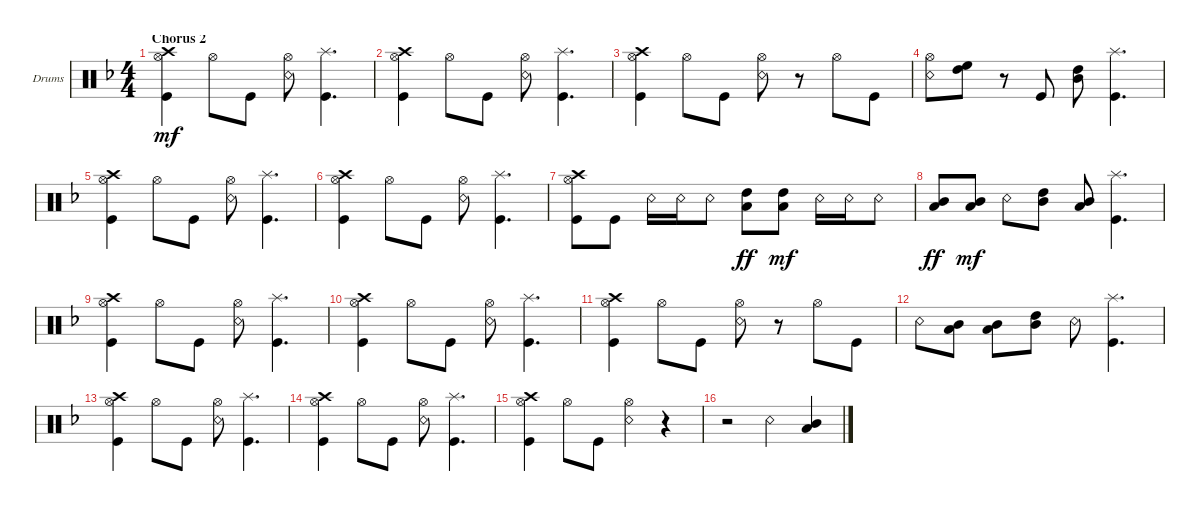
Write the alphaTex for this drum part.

\bracketExtendMode groupsimilarinstruments
\firstSystemTrackNameOrientation horizontal
\otherSystemsTrackNameOrientation horizontal
\track ("Drumkit" "Drums") {instrument percussion}
\staff {score}
\articulation defaults
\ts (4 4)
\section ("" "Chorus 2")
\tempo (125 hide)
\clef neutral
\scale
0.333333
\ks dminor
("Hi-Hat (open)" "Kick (hit)" "Crash high (hit)").4{dy mf} "Hi-Hat (open)".8 "Kick (hit)".8 ("Hi-Hat (open)" "Snare (rim shot)").8 ("Kick (hit)" "Splash (hit)").4{d} |
\scale
0.333333 ("Hi-Hat (open)" "Kick (hit)" "Crash high (hit)").4 "Hi-Hat (open)".8 "Kick (hit)".8 ("Hi-Hat (open)" "Snare (rim shot)").8 ("Kick (hit)" "Splash (hit)").4{d} |
\scale
0.333333 ("Hi-Hat (open)" "Kick (hit)" "Crash high (hit)").4 "Hi-Hat (open)".8 "Kick (hit)".8 ("Hi-Hat (open)" "Snare (rim shot)").8 r.8 "Hi-Hat (open)".8 "Kick (hit)".8 |
\scale
0.333333 ("Hi-Hat (open)" "Snare (rim shot)").8 ("High Floor Tom (hit)" "High Tom (hit)").8 r.8 "Kick (hit)".8 ("High Tom (hit)" "Mid Tom (hit)").8 ("Kick (hit)" "Splash (hit)").4{d} |
\scale
0.333333 ("Hi-Hat (open)" "Kick (hit)" "Crash high (hit)").4 "Hi-Hat (open)".8 "Kick (hit)".8 ("Hi-Hat (open)" "Snare (rim shot)").8 ("Kick (hit)" "Splash (hit)").4{d} |
\scale
0.333333 ("Hi-Hat (open)" "Kick (hit)" "Crash high (hit)").4 "Hi-Hat (open)".8 "Kick (hit)".8 ("Hi-Hat (open)" "Snare (rim shot)").8 ("Kick (hit)" "Splash (hit)").4{d} |
\scale
0.333333 ("Hi-Hat (open)" "Kick (hit)" "Crash high (hit)").8 "Kick (hit)".8 "Snare (rim shot)".16 "Snare (rim shot)".16 "Snare (rim shot)".8 ("Low Tom (hit)" "High Tom (hit)").8{dy ff} ("Low Tom (hit)" "High Tom (hit)").8{dy mf} "Snare (rim shot)".16 "Snare (rim shot)".16 "Snare (rim shot)".8 |
\scale
0.333333 ("Mid Tom (hit)" "Low Tom (hit)").8{dy ff} ("Mid Tom (hit)" "Low Tom (hit)").8{dy mf} "Snare (rim shot)".8 ("High Tom (hit)" "Mid Tom (hit)").8 ("Mid Tom (hit)" "Low Tom (hit)").8 ("Splash (hit)" "Kick (hit)").4{d} |
\scale
0.333333 ("Hi-Hat (open)" "Kick (hit)" "Crash high (hit)").4 "Hi-Hat (open)".8 "Kick (hit)".8 ("Hi-Hat (open)" "Snare (rim shot)").8 ("Kick (hit)" "Splash (hit)").4{d} |
\scale
0.333333 ("Hi-Hat (open)" "Kick (hit)" "Crash high (hit)").4 "Hi-Hat (open)".8 "Kick (hit)".8 ("Hi-Hat (open)" "Snare (rim shot)").8 ("Kick (hit)" "Splash (hit)").4{d} |
\scale
0.333333 ("Hi-Hat (open)" "Kick (hit)" "Crash high (hit)").4 "Hi-Hat (open)".8 "Kick (hit)".8 ("Hi-Hat (open)" "Snare (rim shot)").8 r.8 "Hi-Hat (open)".8 "Kick (hit)".8 |
\scale
0.333333 "Snare (rim shot)".8 ("Mid Tom (hit)" "Low Tom (hit)").8 ("Mid Tom (hit)" "Low Tom (hit)").8 ("High Tom (hit)" "Mid Tom (hit)").8 "Snare (rim shot)".8 ("Splash (hit)" "Kick (hit)").4{d} |
\scale
0.333333 ("Hi-Hat (open)" "Kick (hit)" "Crash high (hit)").4 "Hi-Hat (open)".8 "Kick (hit)".8 ("Hi-Hat (open)" "Snare (rim shot)").8 ("Kick (hit)" "Splash (hit)").4{d} |
\scale
0.333333 ("Hi-Hat (open)" "Kick (hit)" "Crash high (hit)").4 "Hi-Hat (open)".8 "Kick (hit)".8 ("Hi-Hat (open)" "Snare (rim shot)").8 ("Kick (hit)" "Splash (hit)").4{d} |
\scale
0.333333 ("Hi-Hat (open)" "Kick (hit)" "Crash high (hit)").4 "Hi-Hat (open)".8 "Kick (hit)".8 ("Hi-Hat (open)" "Snare (rim shot)").4 r.4 |
\scale
0.333333 r.2 "Snare (rim shot)".4 ("Mid Tom (hit)" "Low Tom (hit)").4
